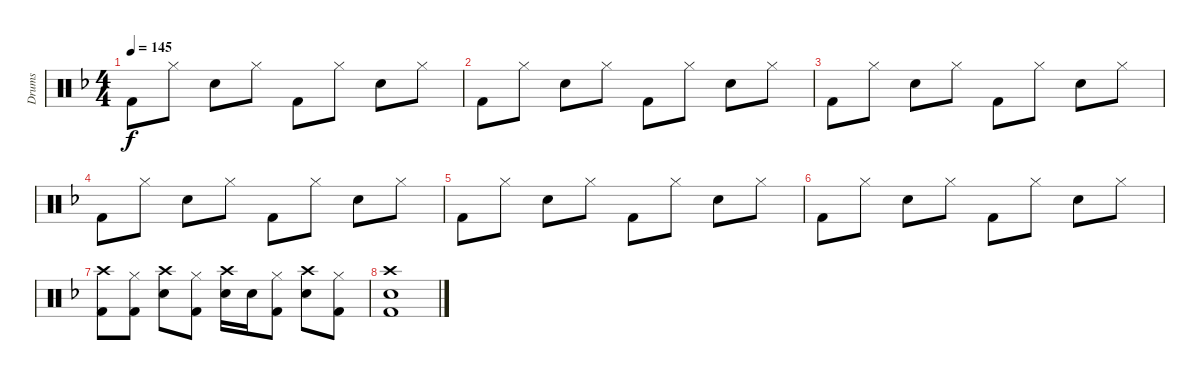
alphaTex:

\track ("Drums" "Drums") {instrument percussion}
\staff {score}
\articulation defaults
\ts (4 4)
\tempo 145
\clef neutral
\ks f "Kick (hit) 2".8{dy f} "Hi-Hat (closed)".8 "Snare (hit) 2".8 "Hi-Hat (closed)".8 "Kick (hit) 2".8 "Hi-Hat (closed)".8 "Snare (hit) 2".8 "Hi-Hat (closed)".8
|
"Kick (hit) 2".8 "Hi-Hat (closed)".8 "Snare (hit) 2".8 "Hi-Hat (closed)".8 "Kick (hit) 2".8 "Hi-Hat (closed)".8 "Snare (hit) 2".8 "Hi-Hat (closed)".8 |
"Kick (hit) 2".8 "Hi-Hat (closed)".8 "Snare (hit) 2".8 "Hi-Hat (closed)".8 "Kick (hit) 2".8 "Hi-Hat (closed)".8 "Snare (hit) 2".8 "Hi-Hat (closed)".8 |
"Kick (hit) 2".8 "Hi-Hat (closed)".8 "Snare (hit) 2".8 "Hi-Hat (closed)".8 "Kick (hit) 2".8 "Hi-Hat (closed)".8 "Snare (hit) 2".8 "Hi-Hat (closed)".8 |
"Kick (hit) 2".8 "Hi-Hat (closed)".8 "Snare (hit) 2".8 "Hi-Hat (closed)".8 "Kick (hit) 2".8 "Hi-Hat (closed)".8 "Snare (hit) 2".8 "Hi-Hat (closed)".8 |
"Kick (hit) 2".8 "Hi-Hat (closed)".8 "Snare (hit) 2".8 "Hi-Hat (closed)".8 "Kick (hit) 2".8 "Hi-Hat (closed)".8 "Snare (hit) 2".8 "Hi-Hat (closed)".8 |
("Kick (hit) 2" "Crash high (hit)").8 ("Hi-Hat (closed)" "Kick (hit) 2").8 ("Snare (hit) 2" "Crash high (hit)").8 ("Hi-Hat (closed)" "Kick (hit) 2").8 ("Crash high (hit)" "Snare (hit) 2").16 "Snare (hit) 2".16 ("Kick (hit) 2" "Hi-Hat (closed)").8 ("Snare (hit) 2" "Crash high (hit)").8 ("Kick (hit) 2" "Hi-Hat (closed)").8 |
("Kick (hit) 2" "Snare (hit) 2" "Crash high (hit)").1
